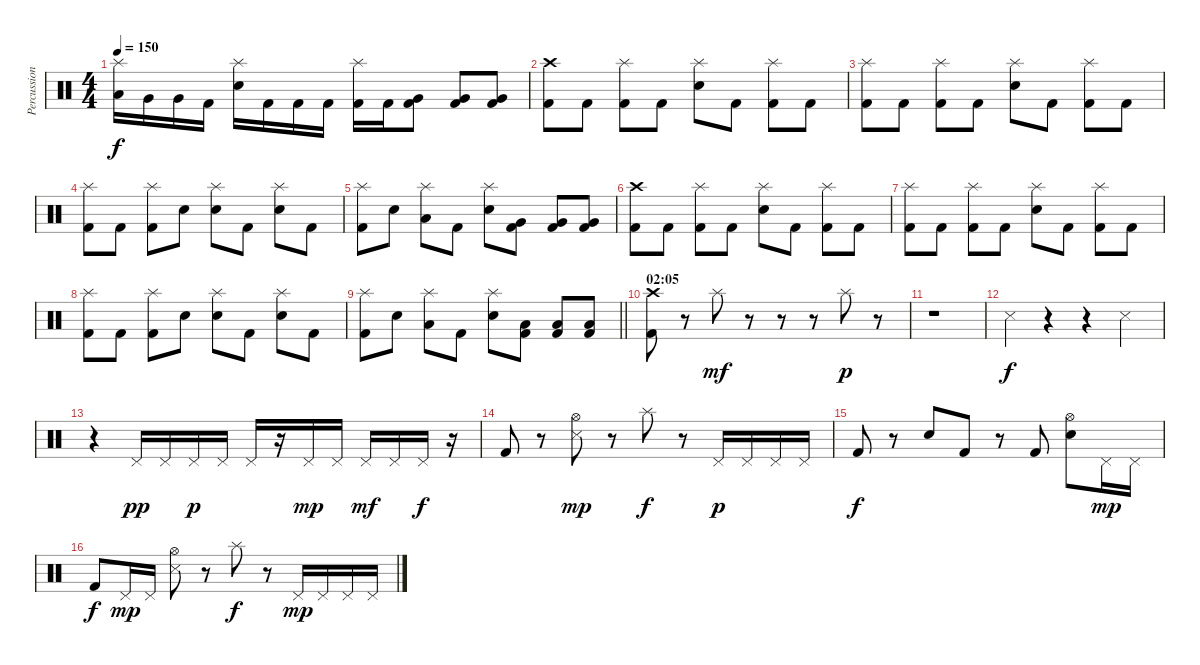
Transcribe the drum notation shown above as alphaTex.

\track ("Percussion" "Percussion") {instrument percussion}
\staff {score}
\articulation defaults
\ts (4 4)
\tempo 150
\clef neutral
\ks c
("Splash (hit)" "Low Tom (hit)").16{dy f} "Very Low Tom (hit)".16 "Very Low Tom (hit)".16 "Kick (hit) 2".16 ("Splash (hit)" "Electric Snare (hit)").16 "Kick (hit) 2".16 "Kick (hit) 2".16 "Kick (hit) 2".16 ("Splash (hit)" "Kick (hit) 2").16 "Kick (hit) 2".16 ("Very Low Tom (hit)" "Kick (hit) 2").8 ("Very Low Tom (hit)" "Kick (hit) 2").8 ("Very Low Tom (hit)" "Kick (hit) 2").8 |
("Crash high (hit)" "Kick (hit) 2").8 "Kick (hit) 2".8 ("Splash (hit)" "Kick (hit) 2").8 "Kick (hit) 2".8 ("Splash (hit)" "Electric Snare (hit)").8 "Kick (hit) 2".8 ("Splash (hit)" "Kick (hit) 2").8 "Kick (hit) 2".8 |
("Splash (hit)" "Kick (hit) 2").8 "Kick (hit) 2".8 ("Splash (hit)" "Kick (hit) 2").8 "Kick (hit) 2".8 ("Splash (hit)" "Electric Snare (hit)").8 "Kick (hit) 2".8 ("Splash (hit)" "Kick (hit) 2").8 "Kick (hit) 2".8 |
("Splash (hit)" "Kick (hit) 2").8 "Kick (hit) 2".8 ("Splash (hit)" "Kick (hit) 2").8 "Electric Snare (hit)".8 ("Splash (hit)" "Electric Snare (hit)").8 "Kick (hit) 2".8 ("Splash (hit)" "Electric Snare (hit)").8 "Kick (hit) 2".8 |
("Splash (hit)" "Kick (hit) 2").8 "Electric Snare (hit)".8 ("Splash (hit)" "Low Tom (hit)").8 "Kick (hit) 2".8 ("Splash (hit)" "Electric Snare (hit)").8 ("Very Low Tom (hit)" "Kick (hit) 2").8 ("Very Low Tom (hit)" "Kick (hit) 2").8 ("Very Low Tom (hit)" "Kick (hit) 2").8 |
("Crash high (hit)" "Kick (hit) 2").8 "Kick (hit) 2".8 ("Splash (hit)" "Kick (hit) 2").8 "Kick (hit) 2".8 ("Splash (hit)" "Electric Snare (hit)").8 "Kick (hit) 2".8 ("Splash (hit)" "Kick (hit) 2").8 "Kick (hit) 2".8 |
("Splash (hit)" "Kick (hit) 2").8 "Kick (hit) 2".8 ("Splash (hit)" "Kick (hit) 2").8 "Kick (hit) 2".8 ("Splash (hit)" "Electric Snare (hit)").8 "Kick (hit) 2".8 ("Splash (hit)" "Kick (hit) 2").8 "Kick (hit) 2".8 |
("Splash (hit)" "Kick (hit) 2").8 "Kick (hit) 2".8 ("Splash (hit)" "Kick (hit) 2").8 "Electric Snare (hit)".8 ("Splash (hit)" "Electric Snare (hit)").8 "Kick (hit) 2".8 ("Splash (hit)" "Electric Snare (hit)").8 "Kick (hit) 2".8 |
\barLineRight lightlight
("Splash (hit)" "Kick (hit) 2").8 "Electric Snare (hit)".8 ("Splash (hit)" "Low Tom (hit)").8 "Kick (hit) 2".8 ("Splash (hit)" "Electric Snare (hit)").8 ("Low Floor Tom (hit)" "Kick (hit) 2").8 ("Low Floor Tom (hit)" "Kick (hit) 2").8 ("Low Floor Tom (hit)" "Kick (hit) 2").8 |
\section ("" "02:05")
("Crash high (hit)" "Kick (hit) 2").8 r.8 "Splash (hit)".8{dy mf} r.8 r.8 r.8 "Splash (hit)".8{dy p} r.8 |
r.1 |
"Snare (side stick) 3".4{dy f} r.4 r.4 "Snare (side stick) 3".4 |
r.4 "Pedal Hi-Hat (hit)".16{dy pp} "Pedal Hi-Hat (hit)".16 "Pedal Hi-Hat (hit)".16{dy p} "Pedal Hi-Hat (hit)".16 "Pedal Hi-Hat (hit)".16 r.16 "Pedal Hi-Hat (hit)".16{dy mp} "Pedal Hi-Hat (hit)".16 "Pedal Hi-Hat (hit)".16{dy mf} "Pedal Hi-Hat (hit)".16 "Pedal Hi-Hat (hit)".16{dy f} r.16 |
"Kick (hit) 2".8 r.8 ("Hi-Hat (open)" "Snare (side stick) 3").8{dy mp} r.8 "Splash (hit)".8{dy f} r.8 "Pedal Hi-Hat (hit)".16{dy p} "Pedal Hi-Hat (hit)".16 "Pedal Hi-Hat (hit)".16 "Pedal Hi-Hat (hit)".16 |
"Kick (hit) 2".8{dy f} r.8 "Electric Snare (hit)".8 "Kick (hit) 2".8 r.8 "Kick (hit) 2".8 ("Hi-Hat (open)" "Electric Snare (hit)").8 "Pedal Hi-Hat (hit)".16{dy mp} "Pedal Hi-Hat (hit)".16 |
"Kick (hit) 2".8{dy f} "Pedal Hi-Hat (hit)".16{dy mp} "Pedal Hi-Hat (hit)".16 ("Hi-Hat (open)" "Snare (side stick) 3").8 r.8 "Splash (hit)".8{dy f} r.8 "Pedal Hi-Hat (hit)".16{dy mp} "Pedal Hi-Hat (hit)".16 "Pedal Hi-Hat (hit)".16 "Pedal Hi-Hat (hit)".16
